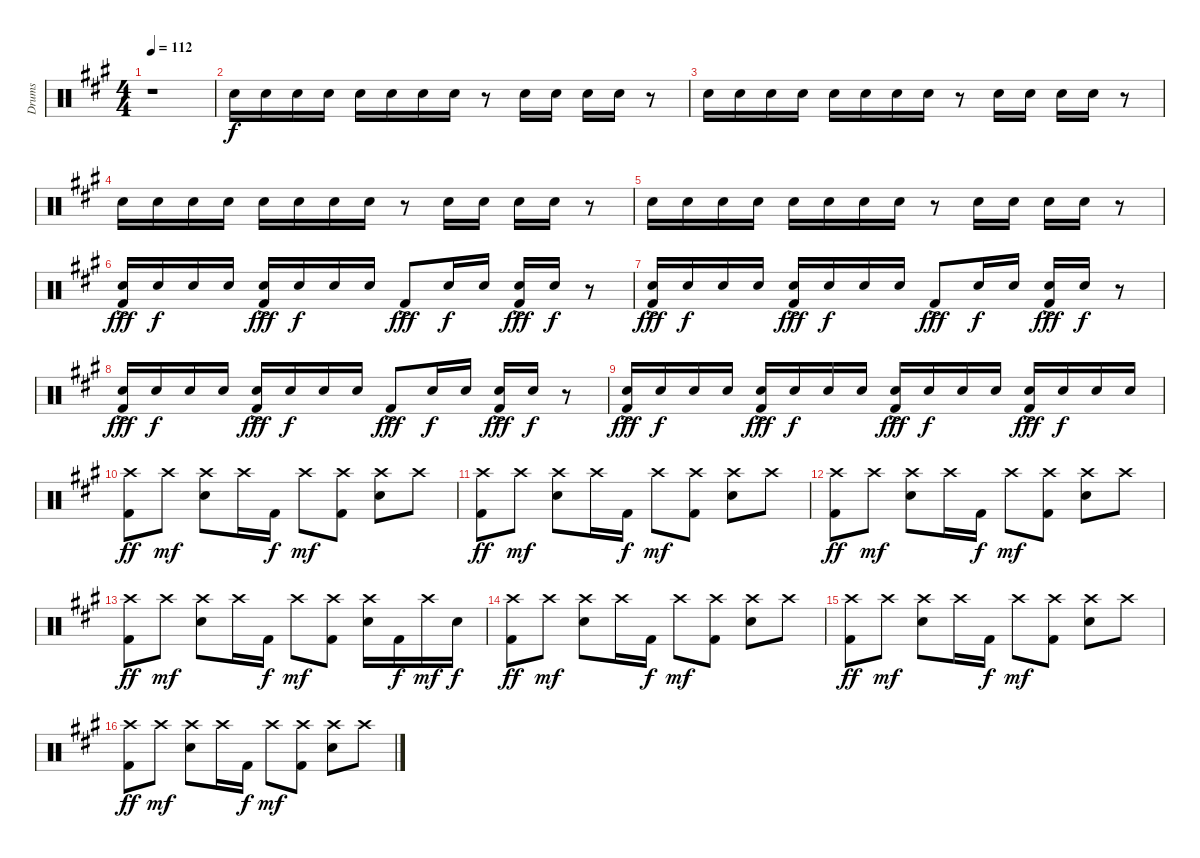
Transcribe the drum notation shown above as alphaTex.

\track ("Drums" "Drums") {instrument percussion}
\staff {score}
\articulation defaults
\ts (4 4)
\tempo 112
\clef neutral
\ks f#minor
r.1{dy f} |
"Snare (hit) 2".16 "Snare (hit) 2".16 "Snare (hit) 2".16 "Snare (hit) 2".16 "Snare (hit) 2".16 "Snare (hit) 2".16 "Snare (hit) 2".16 "Snare (hit) 2".16 r.8 "Snare (hit) 2".16 "Snare (hit) 2".16 "Snare (hit) 2".16 "Snare (hit) 2".16 r.8 |
"Snare (hit) 2".16 "Snare (hit) 2".16 "Snare (hit) 2".16 "Snare (hit) 2".16 "Snare (hit) 2".16 "Snare (hit) 2".16 "Snare (hit) 2".16 "Snare (hit) 2".16 r.8 "Snare (hit) 2".16 "Snare (hit) 2".16 "Snare (hit) 2".16 "Snare (hit) 2".16 r.8 |
"Snare (hit) 2".16 "Snare (hit) 2".16 "Snare (hit) 2".16 "Snare (hit) 2".16 "Snare (hit) 2".16 "Snare (hit) 2".16 "Snare (hit) 2".16 "Snare (hit) 2".16 r.8 "Snare (hit) 2".16 "Snare (hit) 2".16 "Snare (hit) 2".16 "Snare (hit) 2".16 r.8 |
"Snare (hit) 2".16 "Snare (hit) 2".16 "Snare (hit) 2".16 "Snare (hit) 2".16 "Snare (hit) 2".16 "Snare (hit) 2".16 "Snare (hit) 2".16 "Snare (hit) 2".16 r.8 "Snare (hit) 2".16 "Snare (hit) 2".16 "Snare (hit) 2".16 "Snare (hit) 2".16 r.8 |
("Snare (hit) 2" "Kick (hit) 2"{ac}).16{dy fff} "Snare (hit) 2".16{dy f} "Snare (hit) 2".16 "Snare (hit) 2".16 ("Snare (hit) 2" "Kick (hit) 2"{ac}).16{dy fff} "Snare (hit) 2".16{dy f} "Snare (hit) 2".16 "Snare (hit) 2".16 "Kick (hit) 2"{ac}.8{dy fff} "Snare (hit) 2".16{dy f} "Snare (hit) 2".16 ("Snare (hit) 2" "Kick (hit) 2"{ac}).16{dy fff} "Snare (hit) 2".16{dy f} r.8 |
("Snare (hit) 2" "Kick (hit) 2"{ac}).16{dy fff} "Snare (hit) 2".16{dy f} "Snare (hit) 2".16 "Snare (hit) 2".16 ("Snare (hit) 2" "Kick (hit) 2"{ac}).16{dy fff} "Snare (hit) 2".16{dy f} "Snare (hit) 2".16 "Snare (hit) 2".16 "Kick (hit) 2"{ac}.8{dy fff} "Snare (hit) 2".16{dy f} "Snare (hit) 2".16 ("Snare (hit) 2" "Kick (hit) 2"{ac}).16{dy fff} "Snare (hit) 2".16{dy f} r.8 |
("Snare (hit) 2" "Kick (hit) 2"{ac}).16{dy fff} "Snare (hit) 2".16{dy f} "Snare (hit) 2".16 "Snare (hit) 2".16 ("Snare (hit) 2" "Kick (hit) 2"{ac}).16{dy fff} "Snare (hit) 2".16{dy f} "Snare (hit) 2".16 "Snare (hit) 2".16 "Kick (hit) 2"{ac}.8{dy fff} "Snare (hit) 2".16{dy f} "Snare (hit) 2".16 ("Snare (hit) 2" "Kick (hit) 2"{ac}).16{dy fff} "Snare (hit) 2".16{dy f} r.8 |
("Snare (hit) 2" "Kick (hit) 2"{ac}).16{dy fff} "Snare (hit) 2".16{dy f} "Snare (hit) 2".16 "Snare (hit) 2".16 ("Snare (hit) 2" "Kick (hit) 2"{ac}).16{dy fff} "Snare (hit) 2".16{dy f} "Snare (hit) 2".16 "Snare (hit) 2".16 ("Snare (hit) 2" "Kick (hit) 2"{ac}).16{dy fff} "Snare (hit) 2".16{dy f} "Snare (hit) 2".16 "Snare (hit) 2".16 ("Snare (hit) 2" "Kick (hit) 2"{ac}).16{dy fff} "Snare (hit) 2".16{dy f} "Snare (hit) 2".16 "Snare (hit) 2".16 |
("Crash high (hit)" "Kick (hit) 2").8{dy ff} "Crash high (hit)".8{dy mf} ("Crash high (hit)" "Snare (hit) 2").8 "Crash high (hit)".16 "Kick (hit) 2".16{dy f} "Crash high (hit)".8{dy mf} ("Crash high (hit)" "Kick (hit) 2").8 ("Crash high (hit)" "Snare (hit) 2").8 "Crash high (hit)".8 |
("Crash high (hit)" "Kick (hit) 2").8{dy ff} "Crash high (hit)".8{dy mf} ("Crash high (hit)" "Snare (hit) 2").8 "Crash high (hit)".16 "Kick (hit) 2".16{dy f} "Crash high (hit)".8{dy mf} ("Crash high (hit)" "Kick (hit) 2").8 ("Crash high (hit)" "Snare (hit) 2").8 "Crash high (hit)".8 |
("Crash high (hit)" "Kick (hit) 2").8{dy ff} "Crash high (hit)".8{dy mf} ("Crash high (hit)" "Snare (hit) 2").8 "Crash high (hit)".16 "Kick (hit) 2".16{dy f} "Crash high (hit)".8{dy mf} ("Crash high (hit)" "Kick (hit) 2").8 ("Crash high (hit)" "Snare (hit) 2").8 "Crash high (hit)".8 |
("Crash high (hit)" "Kick (hit) 2").8{dy ff} "Crash high (hit)".8{dy mf} ("Crash high (hit)" "Snare (hit) 2").8 "Crash high (hit)".16 "Kick (hit) 2".16{dy f} "Crash high (hit)".8{dy mf} ("Crash high (hit)" "Kick (hit) 2").8 ("Crash high (hit)" "Snare (hit) 2").16 "Kick (hit) 2".16{dy f} "Crash high (hit)".16{dy mf} "Snare (hit) 2".16{dy f} |
("Crash high (hit)" "Kick (hit) 2").8{dy ff} "Crash high (hit)".8{dy mf} ("Crash high (hit)" "Snare (hit) 2").8 "Crash high (hit)".16 "Kick (hit) 2".16{dy f} "Crash high (hit)".8{dy mf} ("Crash high (hit)" "Kick (hit) 2").8 ("Crash high (hit)" "Snare (hit) 2").8 "Crash high (hit)".8 |
("Crash high (hit)" "Kick (hit) 2").8{dy ff} "Crash high (hit)".8{dy mf} ("Crash high (hit)" "Snare (hit) 2").8 "Crash high (hit)".16 "Kick (hit) 2".16{dy f} "Crash high (hit)".8{dy mf} ("Crash high (hit)" "Kick (hit) 2").8 ("Crash high (hit)" "Snare (hit) 2").8 "Crash high (hit)".8 |
("Crash high (hit)" "Kick (hit) 2").8{dy ff} "Crash high (hit)".8{dy mf} ("Crash high (hit)" "Snare (hit) 2").8 "Crash high (hit)".16 "Kick (hit) 2".16{dy f} "Crash high (hit)".8{dy mf} ("Crash high (hit)" "Kick (hit) 2").8 ("Crash high (hit)" "Snare (hit) 2").8 "Crash high (hit)".8
